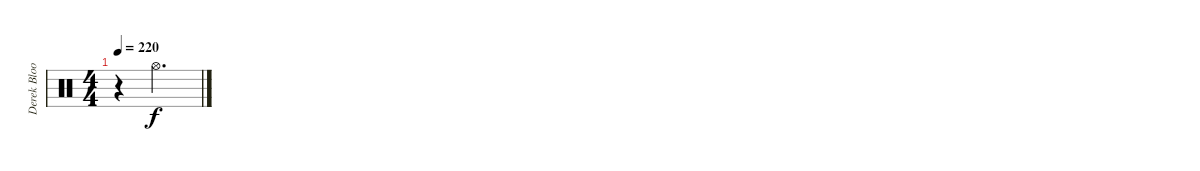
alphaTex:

\track ("Derek Bloom - Drums" "Derek Bloo") {instrument percussion}
\staff {score}
\articulation defaults
\ts (4 4)
\tempo 220
\clef neutral
\ks c
r.4{dy f} "Hi-Hat (open)".2{d}
